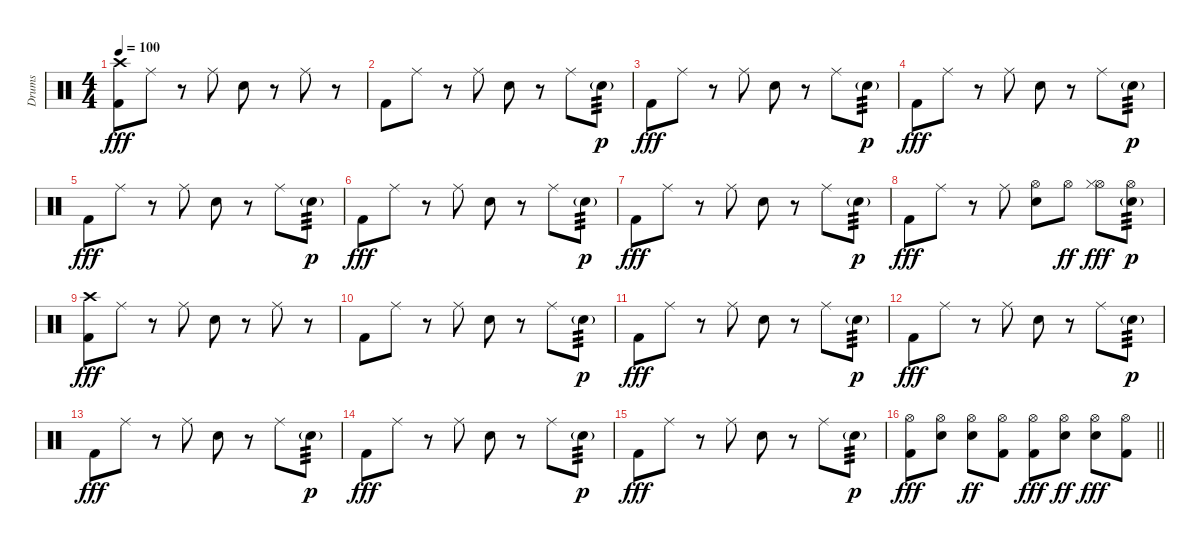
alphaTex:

\track ("Drums" "Drums") {instrument percussion}
\staff {score}
\articulation defaults
\ts (4 4)
\tempo 100
\clef neutral
\ks c
("Crash high (hit)" "Kick (hit) 2").8{dy fff} "Ride (middle)".8 r.8 "Ride (middle)".8 "Electric Snare (hit)".8 r.8 "Ride (middle)".8 r.8 |
"Kick (hit) 2".8 "Ride (middle)".8 r.8 "Ride (middle)".8 "Electric Snare (hit)".8 r.8 "Ride (middle)".8 "Electric Snare (hit)"{g}.8{tp 3 dy p} |
"Kick (hit) 2".8{dy fff} "Ride (middle)".8 r.8 "Ride (middle)".8 "Electric Snare (hit)".8 r.8 "Ride (middle)".8 "Electric Snare (hit)"{g}.8{tp 3 dy p} |
"Kick (hit) 2".8{dy fff} "Ride (middle)".8 r.8 "Ride (middle)".8 "Electric Snare (hit)".8 r.8 "Ride (middle)".8 "Electric Snare (hit)"{g}.8{tp 3 dy p} |
"Kick (hit) 2".8{dy fff} "Ride (middle)".8 r.8 "Ride (middle)".8 "Electric Snare (hit)".8 r.8 "Ride (middle)".8 "Electric Snare (hit)"{g}.8{tp 3 dy p} |
"Kick (hit) 2".8{dy fff} "Ride (middle)".8 r.8 "Ride (middle)".8 "Electric Snare (hit)".8 r.8 "Ride (middle)".8 "Electric Snare (hit)"{g}.8{tp 3 dy p} |
"Kick (hit) 2".8{dy fff} "Ride (middle)".8 r.8 "Ride (middle)".8 "Electric Snare (hit)".8 r.8 "Ride (middle)".8 "Electric Snare (hit)"{g}.8{tp 3 dy p} |
"Kick (hit) 2".8{dy fff} "Ride (middle)".8 r.8 "Ride (middle)".8 ("Hi-Hat (open)" "Electric Snare (hit)").8 "Hi-Hat (open)".8{dy ff} ("Hi-Hat (open)" "Hi-Hat (closed)").8{dy fff} ("Hi-Hat (open)" "Electric Snare (hit)"{g}).8{tp 3 dy p} |
("Crash high (hit)" "Kick (hit) 2").8{dy fff} "Ride (middle)".8 r.8 "Ride (middle)".8 "Electric Snare (hit)".8 r.8 "Ride (middle)".8 r.8 |
"Kick (hit) 2".8 "Ride (middle)".8 r.8 "Ride (middle)".8 "Electric Snare (hit)".8 r.8 "Ride (middle)".8 "Electric Snare (hit)"{g}.8{tp 3 dy p} |
"Kick (hit) 2".8{dy fff} "Ride (middle)".8 r.8 "Ride (middle)".8 "Electric Snare (hit)".8 r.8 "Ride (middle)".8 "Electric Snare (hit)"{g}.8{tp 3 dy p} |
"Kick (hit) 2".8{dy fff} "Ride (middle)".8 r.8 "Ride (middle)".8 "Electric Snare (hit)".8 r.8 "Ride (middle)".8 "Electric Snare (hit)"{g}.8{tp 3 dy p} |
"Kick (hit) 2".8{dy fff} "Ride (middle)".8 r.8 "Ride (middle)".8 "Electric Snare (hit)".8 r.8 "Ride (middle)".8 "Electric Snare (hit)"{g}.8{tp 3 dy p} |
"Kick (hit) 2".8{dy fff} "Ride (middle)".8 r.8 "Ride (middle)".8 "Electric Snare (hit)".8 r.8 "Ride (middle)".8 "Electric Snare (hit)"{g}.8{tp 3 dy p} |
"Kick (hit) 2".8{dy fff} "Ride (middle)".8 r.8 "Ride (middle)".8 "Electric Snare (hit)".8 r.8 "Ride (middle)".8 "Electric Snare (hit)"{g}.8{tp 3 dy p} |
\barLineRight lightlight
("Hi-Hat (open)" "Kick (hit) 2").8{dy fff} ("Hi-Hat (open)" "Electric Snare (hit)").8 ("Hi-Hat (open)" "Electric Snare (hit)").8{dy ff} ("Hi-Hat (open)" "Kick (hit) 2").8 ("Hi-Hat (open)" "Kick (hit) 2").8{dy fff} ("Hi-Hat (open)" "Electric Snare (hit)").8{dy ff} ("Hi-Hat (open)" "Electric Snare (hit)").8{dy fff} ("Hi-Hat (open)" "Kick (hit) 2").8
